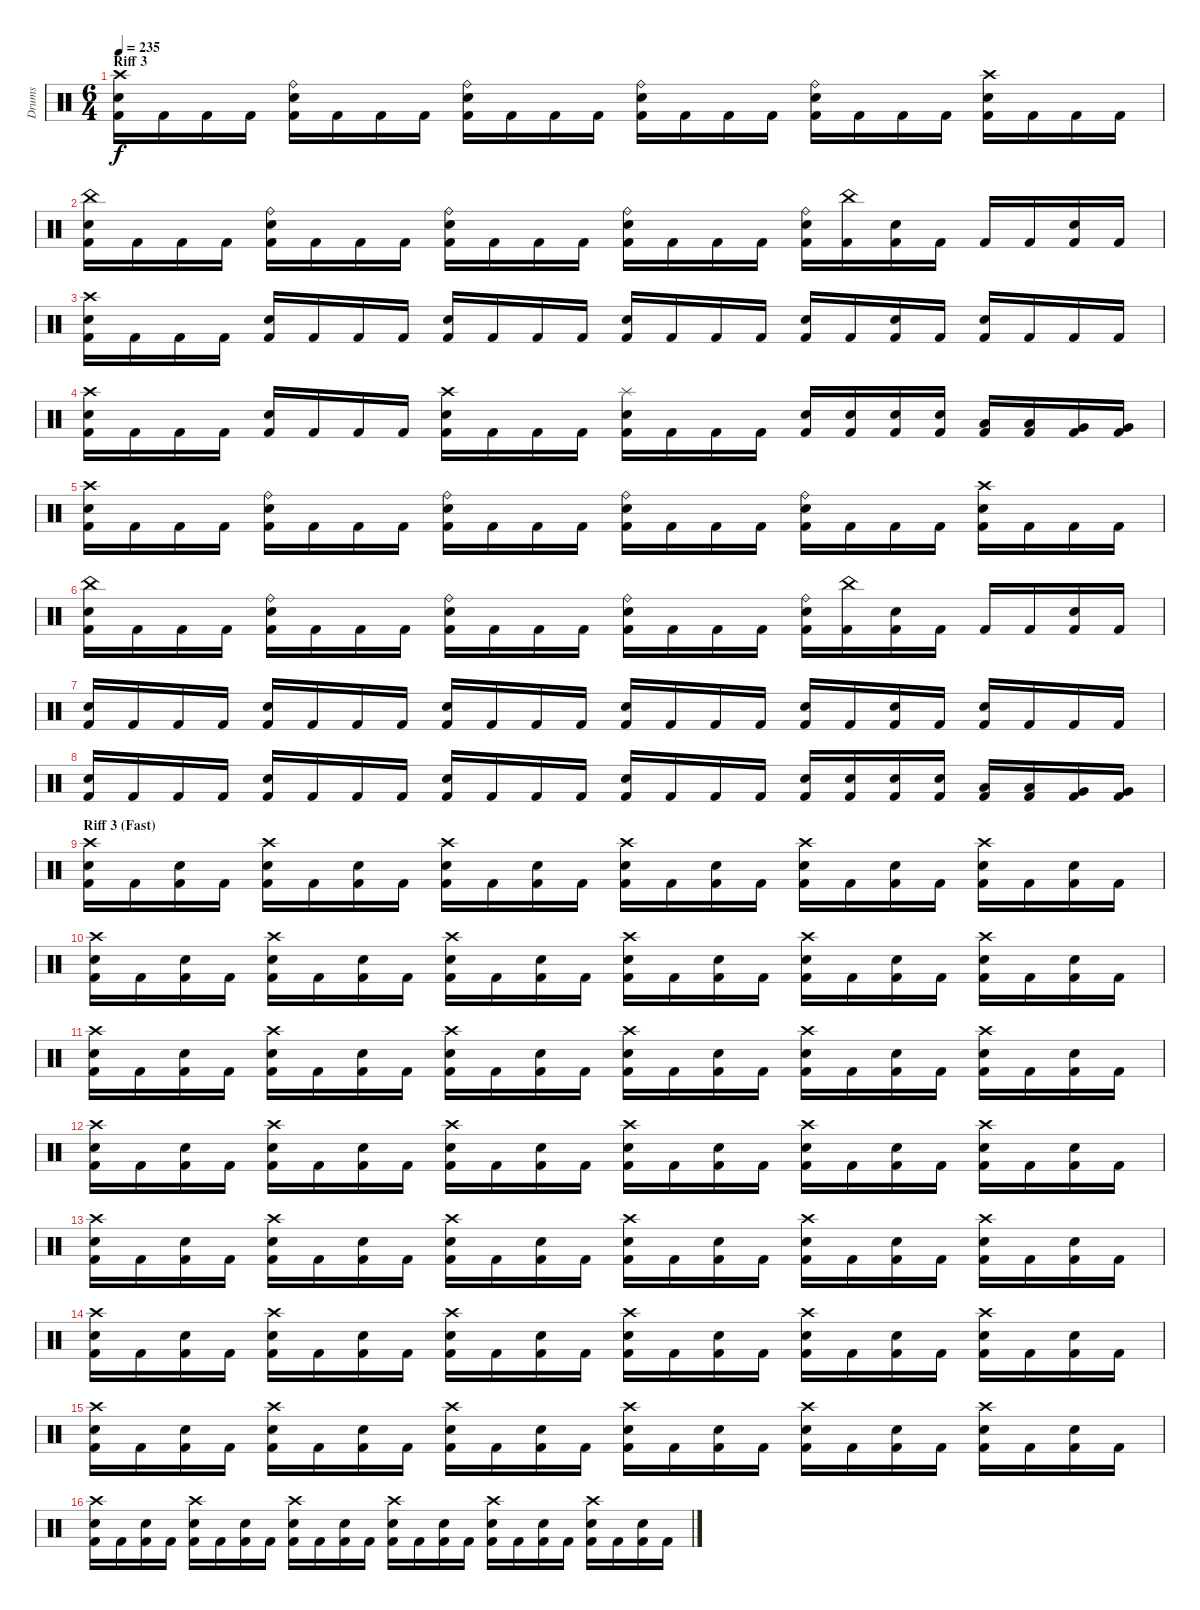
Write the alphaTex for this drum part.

\track ("Drums" "Drums") {instrument percussion}
\staff {score}
\articulation defaults
\ts (6 4)
\section ("" "Riff 3")
\tempo 235
\clef neutral
\ks c
("Kick (hit) 2" "Snare (hit) 2" "Crash high (hit)").16{dy f} "Kick (hit) 2".16 "Kick (hit) 2".16 "Kick (hit) 2".16 ("Kick (hit) 2" "Snare (hit) 2" "Ride (bell)").16 "Kick (hit) 2".16 "Kick (hit) 2".16 "Kick (hit) 2".16 ("Kick (hit) 2" "Snare (hit) 2" "Ride (bell)").16 "Kick (hit) 2".16 "Kick (hit) 2".16 "Kick (hit) 2".16 ("Kick (hit) 2" "Snare (hit) 2" "Ride (bell)").16 "Kick (hit) 2".16 "Kick (hit) 2".16 "Kick (hit) 2".16 ("Kick (hit) 2" "Snare (hit) 2" "Ride (bell)").16 "Kick (hit) 2".16 "Kick (hit) 2".16 "Kick (hit) 2".16 ("Kick (hit) 2" "Snare (hit) 2" "Crash high (hit)").16 "Kick (hit) 2".16 "Kick (hit) 2".16 "Kick (hit) 2".16 |
("Kick (hit) 2" "Snare (hit) 2" "China (hit)").16 "Kick (hit) 2".16 "Kick (hit) 2".16 "Kick (hit) 2".16 ("Kick (hit) 2" "Snare (hit) 2" "Ride (bell)").16 "Kick (hit) 2".16 "Kick (hit) 2".16 "Kick (hit) 2".16 ("Kick (hit) 2" "Snare (hit) 2" "Ride (bell)").16 "Kick (hit) 2".16 "Kick (hit) 2".16 "Kick (hit) 2".16 ("Kick (hit) 2" "Snare (hit) 2" "Ride (bell)").16 "Kick (hit) 2".16 "Kick (hit) 2".16 "Kick (hit) 2".16 ("Kick (hit) 2" "Snare (hit) 2" "Ride (bell)").16 ("Kick (hit) 2" "China (hit)").16 ("Kick (hit) 2" "Snare (hit) 2").16 "Kick (hit) 2".16 "Kick (hit) 2".16 "Kick (hit) 2".16 ("Kick (hit) 2" "Snare (hit) 2").16 "Kick (hit) 2".16 |
("Kick (hit) 2" "Snare (hit) 2" "Crash high (hit)").16 "Kick (hit) 2".16 "Kick (hit) 2".16 "Kick (hit) 2".16 ("Kick (hit) 2" "Snare (hit) 2").16 "Kick (hit) 2".16 "Kick (hit) 2".16 "Kick (hit) 2".16 ("Kick (hit) 2" "Snare (hit) 2").16 "Kick (hit) 2".16 "Kick (hit) 2".16 "Kick (hit) 2".16 ("Kick (hit) 2" "Snare (hit) 2").16 "Kick (hit) 2".16 "Kick (hit) 2".16 "Kick (hit) 2".16 ("Kick (hit) 2" "Snare (hit) 2").16 "Kick (hit) 2".16 ("Kick (hit) 2" "Snare (hit) 2").16 "Kick (hit) 2".16 ("Kick (hit) 2" "Snare (hit) 2").16 "Kick (hit) 2".16 "Kick (hit) 2".16 "Kick (hit) 2".16 |
("Kick (hit) 2" "Snare (hit) 2" "Crash high (hit)").16 "Kick (hit) 2".16 "Kick (hit) 2".16 "Kick (hit) 2".16 ("Kick (hit) 2" "Snare (hit) 2").16 "Kick (hit) 2".16 "Kick (hit) 2".16 "Kick (hit) 2".16 ("Kick (hit) 2" "Snare (hit) 2" "Crash high (hit)").16 "Kick (hit) 2".16 "Kick (hit) 2".16 "Kick (hit) 2".16 ("Kick (hit) 2" "Snare (hit) 2" "Splash (hit)").16 "Kick (hit) 2".16 "Kick (hit) 2".16 "Kick (hit) 2".16 ("Kick (hit) 2" "Snare (hit) 2").16 ("Kick (hit) 2" "Snare (hit) 2").16 ("Kick (hit) 2" "Snare (hit) 2").16 ("Kick (hit) 2" "Snare (hit) 2").16 ("Kick (hit) 2" "Low Tom (hit)").16 ("Kick (hit) 2" "Low Tom (hit)").16 ("Kick (hit) 2" "Very Low Tom (hit)").16 ("Kick (hit) 2" "Very Low Tom (hit)").16 |
("Kick (hit) 2" "Snare (hit) 2" "Crash high (hit)").16 "Kick (hit) 2".16 "Kick (hit) 2".16 "Kick (hit) 2".16 ("Kick (hit) 2" "Snare (hit) 2" "Ride (bell)").16 "Kick (hit) 2".16 "Kick (hit) 2".16 "Kick (hit) 2".16 ("Kick (hit) 2" "Snare (hit) 2" "Ride (bell)").16 "Kick (hit) 2".16 "Kick (hit) 2".16 "Kick (hit) 2".16 ("Kick (hit) 2" "Snare (hit) 2" "Ride (bell)").16 "Kick (hit) 2".16 "Kick (hit) 2".16 "Kick (hit) 2".16 ("Kick (hit) 2" "Snare (hit) 2" "Ride (bell)").16 "Kick (hit) 2".16 "Kick (hit) 2".16 "Kick (hit) 2".16 ("Kick (hit) 2" "Snare (hit) 2" "Crash high (hit)").16 "Kick (hit) 2".16 "Kick (hit) 2".16 "Kick (hit) 2".16 |
("Kick (hit) 2" "Snare (hit) 2" "China (hit)").16 "Kick (hit) 2".16 "Kick (hit) 2".16 "Kick (hit) 2".16 ("Kick (hit) 2" "Snare (hit) 2" "Ride (bell)").16 "Kick (hit) 2".16 "Kick (hit) 2".16 "Kick (hit) 2".16 ("Kick (hit) 2" "Snare (hit) 2" "Ride (bell)").16 "Kick (hit) 2".16 "Kick (hit) 2".16 "Kick (hit) 2".16 ("Kick (hit) 2" "Snare (hit) 2" "Ride (bell)").16 "Kick (hit) 2".16 "Kick (hit) 2".16 "Kick (hit) 2".16 ("Kick (hit) 2" "Snare (hit) 2" "Ride (bell)").16 ("Kick (hit) 2" "China (hit)").16 ("Kick (hit) 2" "Snare (hit) 2").16 "Kick (hit) 2".16 "Kick (hit) 2".16 "Kick (hit) 2".16 ("Kick (hit) 2" "Snare (hit) 2").16 "Kick (hit) 2".16 |
("Kick (hit) 2" "Snare (hit) 2").16 "Kick (hit) 2".16 "Kick (hit) 2".16 "Kick (hit) 2".16 ("Kick (hit) 2" "Snare (hit) 2").16 "Kick (hit) 2".16 "Kick (hit) 2".16 "Kick (hit) 2".16 ("Kick (hit) 2" "Snare (hit) 2").16 "Kick (hit) 2".16 "Kick (hit) 2".16 "Kick (hit) 2".16 ("Kick (hit) 2" "Snare (hit) 2").16 "Kick (hit) 2".16 "Kick (hit) 2".16 "Kick (hit) 2".16 ("Kick (hit) 2" "Snare (hit) 2").16 "Kick (hit) 2".16 ("Kick (hit) 2" "Snare (hit) 2").16 "Kick (hit) 2".16 ("Kick (hit) 2" "Snare (hit) 2").16 "Kick (hit) 2".16 "Kick (hit) 2".16 "Kick (hit) 2".16 |
("Kick (hit) 2" "Snare (hit) 2").16 "Kick (hit) 2".16 "Kick (hit) 2".16 "Kick (hit) 2".16 ("Kick (hit) 2" "Snare (hit) 2").16 "Kick (hit) 2".16 "Kick (hit) 2".16 "Kick (hit) 2".16 ("Kick (hit) 2" "Snare (hit) 2").16 "Kick (hit) 2".16 "Kick (hit) 2".16 "Kick (hit) 2".16 ("Kick (hit) 2" "Snare (hit) 2").16 "Kick (hit) 2".16 "Kick (hit) 2".16 "Kick (hit) 2".16 ("Kick (hit) 2" "Snare (hit) 2").16 ("Kick (hit) 2" "Snare (hit) 2").16 ("Kick (hit) 2" "Snare (hit) 2").16 ("Kick (hit) 2" "Snare (hit) 2").16 ("Kick (hit) 2" "Low Tom (hit)").16 ("Kick (hit) 2" "Low Tom (hit)").16 ("Kick (hit) 2" "Very Low Tom (hit)").16 ("Kick (hit) 2" "Very Low Tom (hit)").16 |
\section ("" "Riff 3 (Fast)")
("Kick (hit) 2" "Snare (hit) 2" "Crash high (hit)").16 "Kick (hit) 2".16 ("Kick (hit) 2" "Snare (hit) 2").16 "Kick (hit) 2".16 ("Kick (hit) 2" "Snare (hit) 2" "Crash high (hit)").16 "Kick (hit) 2".16 ("Kick (hit) 2" "Snare (hit) 2").16 "Kick (hit) 2".16 ("Kick (hit) 2" "Snare (hit) 2" "Crash high (hit)").16 "Kick (hit) 2".16 ("Kick (hit) 2" "Snare (hit) 2").16 "Kick (hit) 2".16 ("Kick (hit) 2" "Snare (hit) 2" "Crash high (hit)").16 "Kick (hit) 2".16 ("Kick (hit) 2" "Snare (hit) 2").16 "Kick (hit) 2".16 ("Kick (hit) 2" "Snare (hit) 2" "Crash high (hit)").16 "Kick (hit) 2".16 ("Kick (hit) 2" "Snare (hit) 2").16 "Kick (hit) 2".16 ("Kick (hit) 2" "Snare (hit) 2" "Crash high (hit)").16 "Kick (hit) 2".16 ("Kick (hit) 2" "Snare (hit) 2").16 "Kick (hit) 2".16 |
("Kick (hit) 2" "Snare (hit) 2" "Crash high (hit)").16 "Kick (hit) 2".16 ("Kick (hit) 2" "Snare (hit) 2").16 "Kick (hit) 2".16 ("Kick (hit) 2" "Snare (hit) 2" "Crash high (hit)").16 "Kick (hit) 2".16 ("Kick (hit) 2" "Snare (hit) 2").16 "Kick (hit) 2".16 ("Kick (hit) 2" "Snare (hit) 2" "Crash high (hit)").16 "Kick (hit) 2".16 ("Kick (hit) 2" "Snare (hit) 2").16 "Kick (hit) 2".16 ("Kick (hit) 2" "Snare (hit) 2" "Crash high (hit)").16 "Kick (hit) 2".16 ("Kick (hit) 2" "Snare (hit) 2").16 "Kick (hit) 2".16 ("Kick (hit) 2" "Snare (hit) 2" "Crash high (hit)").16 "Kick (hit) 2".16 ("Kick (hit) 2" "Snare (hit) 2").16 "Kick (hit) 2".16 ("Kick (hit) 2" "Snare (hit) 2" "Crash high (hit)").16 "Kick (hit) 2".16 ("Kick (hit) 2" "Snare (hit) 2").16 "Kick (hit) 2".16 |
("Kick (hit) 2" "Snare (hit) 2" "Crash high (hit)").16 "Kick (hit) 2".16 ("Kick (hit) 2" "Snare (hit) 2").16 "Kick (hit) 2".16 ("Kick (hit) 2" "Snare (hit) 2" "Crash high (hit)").16 "Kick (hit) 2".16 ("Kick (hit) 2" "Snare (hit) 2").16 "Kick (hit) 2".16 ("Kick (hit) 2" "Snare (hit) 2" "Crash high (hit)").16 "Kick (hit) 2".16 ("Kick (hit) 2" "Snare (hit) 2").16 "Kick (hit) 2".16 ("Kick (hit) 2" "Snare (hit) 2" "Crash high (hit)").16 "Kick (hit) 2".16 ("Kick (hit) 2" "Snare (hit) 2").16 "Kick (hit) 2".16 ("Kick (hit) 2" "Snare (hit) 2" "Crash high (hit)").16 "Kick (hit) 2".16 ("Kick (hit) 2" "Snare (hit) 2").16 "Kick (hit) 2".16 ("Kick (hit) 2" "Snare (hit) 2" "Crash high (hit)").16 "Kick (hit) 2".16 ("Kick (hit) 2" "Snare (hit) 2").16 "Kick (hit) 2".16 |
("Kick (hit) 2" "Snare (hit) 2" "Crash high (hit)").16 "Kick (hit) 2".16 ("Kick (hit) 2" "Snare (hit) 2").16 "Kick (hit) 2".16 ("Kick (hit) 2" "Snare (hit) 2" "Crash high (hit)").16 "Kick (hit) 2".16 ("Kick (hit) 2" "Snare (hit) 2").16 "Kick (hit) 2".16 ("Kick (hit) 2" "Snare (hit) 2" "Crash high (hit)").16 "Kick (hit) 2".16 ("Kick (hit) 2" "Snare (hit) 2").16 "Kick (hit) 2".16 ("Kick (hit) 2" "Snare (hit) 2" "Crash high (hit)").16 "Kick (hit) 2".16 ("Kick (hit) 2" "Snare (hit) 2").16 "Kick (hit) 2".16 ("Kick (hit) 2" "Snare (hit) 2" "Crash high (hit)").16 "Kick (hit) 2".16 ("Kick (hit) 2" "Snare (hit) 2").16 "Kick (hit) 2".16 ("Kick (hit) 2" "Snare (hit) 2" "Crash high (hit)").16 "Kick (hit) 2".16 ("Kick (hit) 2" "Snare (hit) 2").16 "Kick (hit) 2".16 |
("Kick (hit) 2" "Snare (hit) 2" "Crash high (hit)").16 "Kick (hit) 2".16 ("Kick (hit) 2" "Snare (hit) 2").16 "Kick (hit) 2".16 ("Kick (hit) 2" "Snare (hit) 2" "Crash high (hit)").16 "Kick (hit) 2".16 ("Kick (hit) 2" "Snare (hit) 2").16 "Kick (hit) 2".16 ("Kick (hit) 2" "Snare (hit) 2" "Crash high (hit)").16 "Kick (hit) 2".16 ("Kick (hit) 2" "Snare (hit) 2").16 "Kick (hit) 2".16 ("Kick (hit) 2" "Snare (hit) 2" "Crash high (hit)").16 "Kick (hit) 2".16 ("Kick (hit) 2" "Snare (hit) 2").16 "Kick (hit) 2".16 ("Kick (hit) 2" "Snare (hit) 2" "Crash high (hit)").16 "Kick (hit) 2".16 ("Kick (hit) 2" "Snare (hit) 2").16 "Kick (hit) 2".16 ("Kick (hit) 2" "Snare (hit) 2" "Crash high (hit)").16 "Kick (hit) 2".16 ("Kick (hit) 2" "Snare (hit) 2").16 "Kick (hit) 2".16 |
("Kick (hit) 2" "Snare (hit) 2" "Crash high (hit)").16 "Kick (hit) 2".16 ("Kick (hit) 2" "Snare (hit) 2").16 "Kick (hit) 2".16 ("Kick (hit) 2" "Snare (hit) 2" "Crash high (hit)").16 "Kick (hit) 2".16 ("Kick (hit) 2" "Snare (hit) 2").16 "Kick (hit) 2".16 ("Kick (hit) 2" "Snare (hit) 2" "Crash high (hit)").16 "Kick (hit) 2".16 ("Kick (hit) 2" "Snare (hit) 2").16 "Kick (hit) 2".16 ("Kick (hit) 2" "Snare (hit) 2" "Crash high (hit)").16 "Kick (hit) 2".16 ("Kick (hit) 2" "Snare (hit) 2").16 "Kick (hit) 2".16 ("Kick (hit) 2" "Snare (hit) 2" "Crash high (hit)").16 "Kick (hit) 2".16 ("Kick (hit) 2" "Snare (hit) 2").16 "Kick (hit) 2".16 ("Kick (hit) 2" "Snare (hit) 2" "Crash high (hit)").16 "Kick (hit) 2".16 ("Kick (hit) 2" "Snare (hit) 2").16 "Kick (hit) 2".16 |
("Kick (hit) 2" "Snare (hit) 2" "Crash high (hit)").16 "Kick (hit) 2".16 ("Kick (hit) 2" "Snare (hit) 2").16 "Kick (hit) 2".16 ("Kick (hit) 2" "Snare (hit) 2" "Crash high (hit)").16 "Kick (hit) 2".16 ("Kick (hit) 2" "Snare (hit) 2").16 "Kick (hit) 2".16 ("Kick (hit) 2" "Snare (hit) 2" "Crash high (hit)").16 "Kick (hit) 2".16 ("Kick (hit) 2" "Snare (hit) 2").16 "Kick (hit) 2".16 ("Kick (hit) 2" "Snare (hit) 2" "Crash high (hit)").16 "Kick (hit) 2".16 ("Kick (hit) 2" "Snare (hit) 2").16 "Kick (hit) 2".16 ("Kick (hit) 2" "Snare (hit) 2" "Crash high (hit)").16 "Kick (hit) 2".16 ("Kick (hit) 2" "Snare (hit) 2").16 "Kick (hit) 2".16 ("Kick (hit) 2" "Snare (hit) 2" "Crash high (hit)").16 "Kick (hit) 2".16 ("Kick (hit) 2" "Snare (hit) 2").16 "Kick (hit) 2".16 |
("Kick (hit) 2" "Snare (hit) 2" "Crash high (hit)").16 "Kick (hit) 2".16 ("Kick (hit) 2" "Snare (hit) 2").16 "Kick (hit) 2".16 ("Kick (hit) 2" "Snare (hit) 2" "Crash high (hit)").16 "Kick (hit) 2".16 ("Kick (hit) 2" "Snare (hit) 2").16 "Kick (hit) 2".16 ("Kick (hit) 2" "Snare (hit) 2" "Crash high (hit)").16 "Kick (hit) 2".16 ("Kick (hit) 2" "Snare (hit) 2").16 "Kick (hit) 2".16 ("Kick (hit) 2" "Snare (hit) 2" "Crash high (hit)").16 "Kick (hit) 2".16 ("Kick (hit) 2" "Snare (hit) 2").16 "Kick (hit) 2".16 ("Kick (hit) 2" "Snare (hit) 2" "Crash high (hit)").16 "Kick (hit) 2".16 ("Kick (hit) 2" "Snare (hit) 2").16 "Kick (hit) 2".16 ("Kick (hit) 2" "Snare (hit) 2" "Crash high (hit)").16 "Kick (hit) 2".16 ("Kick (hit) 2" "Snare (hit) 2").16 "Kick (hit) 2".16
